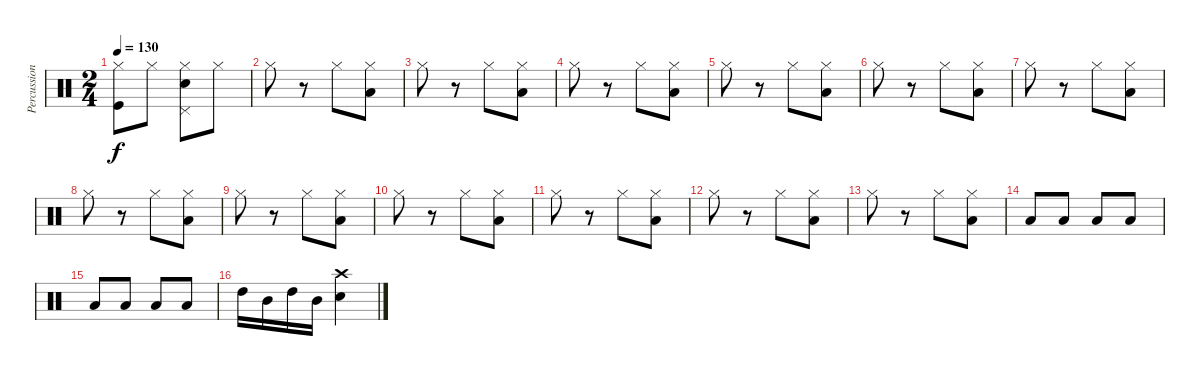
\track ("Percussioni" "Percussion") {instrument percussion}
\staff {score}
\articulation defaults
\ts (2 4)
\tempo 130
\clef neutral
\ks c
("Hi-Hat (closed)" "Kick (hit)").8{dy f} "Hi-Hat (closed)".8 ("Hi-Hat (closed)" "Pedal Hi-Hat (hit)" "Snare (hit) 2").8 "Hi-Hat (closed)".8 |
"Hi-Hat (closed)".8 r.8 "Hi-Hat (closed)".8 ("Hi-Hat (closed)" "Low Floor Tom (hit)").8 |
"Hi-Hat (closed)".8 r.8 "Hi-Hat (closed)".8 ("Hi-Hat (closed)" "Low Floor Tom (hit)").8 |
"Hi-Hat (closed)".8 r.8 "Hi-Hat (closed)".8 ("Hi-Hat (closed)" "Low Floor Tom (hit)").8 |
"Hi-Hat (closed)".8 r.8 "Hi-Hat (closed)".8 ("Hi-Hat (closed)" "Low Floor Tom (hit)").8 |
"Hi-Hat (closed)".8 r.8 "Hi-Hat (closed)".8 ("Hi-Hat (closed)" "Low Floor Tom (hit)").8 |
"Hi-Hat (closed)".8 r.8 "Hi-Hat (closed)".8 ("Hi-Hat (closed)" "Low Floor Tom (hit)").8 |
"Hi-Hat (closed)".8 r.8 "Hi-Hat (closed)".8 ("Hi-Hat (closed)" "Low Floor Tom (hit)").8 |
"Hi-Hat (closed)".8 r.8 "Hi-Hat (closed)".8 ("Hi-Hat (closed)" "Low Floor Tom (hit)").8 |
"Hi-Hat (closed)".8 r.8 "Hi-Hat (closed)".8 ("Hi-Hat (closed)" "Low Floor Tom (hit)").8 |
"Hi-Hat (closed)".8 r.8 "Hi-Hat (closed)".8 ("Hi-Hat (closed)" "Low Floor Tom (hit)").8 |
"Hi-Hat (closed)".8 r.8 "Hi-Hat (closed)".8 ("Hi-Hat (closed)" "Low Floor Tom (hit)").8 |
"Hi-Hat (closed)".8 r.8 "Hi-Hat (closed)".8 ("Hi-Hat (closed)" "Low Floor Tom (hit)").8 |
"Low Floor Tom (hit)".8 "Low Floor Tom (hit)".8 "Low Floor Tom (hit)".8 "Low Floor Tom (hit)".8 |
"Low Floor Tom (hit)".8 "Low Floor Tom (hit)".8 "Low Floor Tom (hit)".8 "Low Floor Tom (hit)".8 |
"High Tom (hit)".16 "Mid Tom (hit)".16 "High Tom (hit)".16 "Mid Tom (hit)".16 ("Crash high (hit)" "Electric Snare (hit)").4
